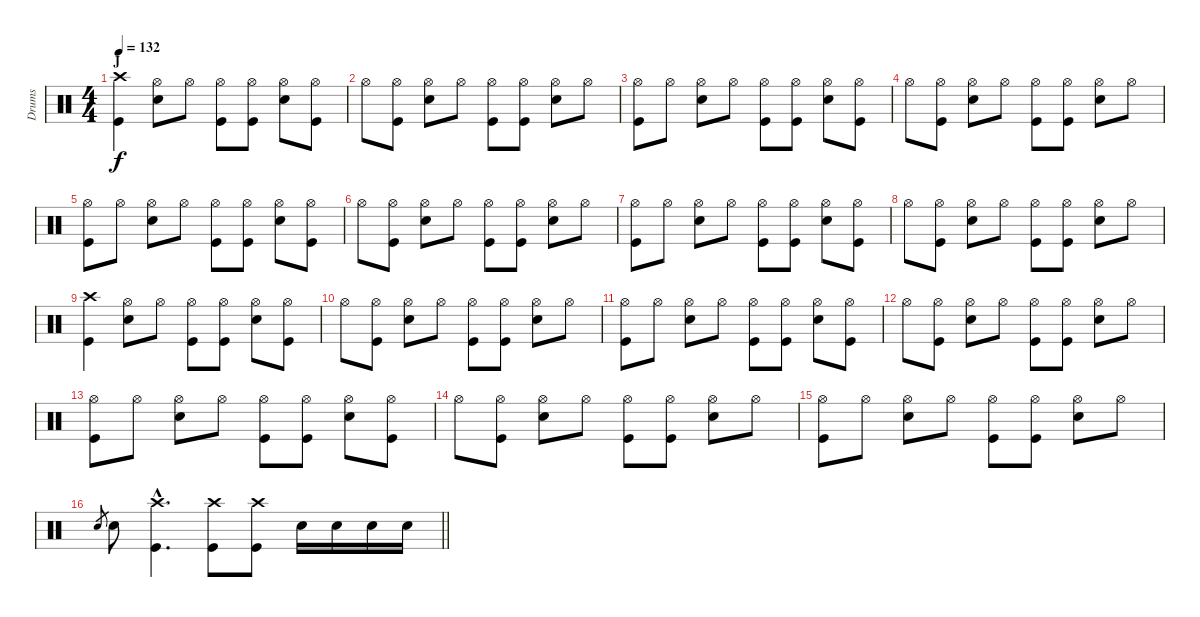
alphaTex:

\track ("Drums" "Drums") {instrument percussion}
\staff {score}
\articulation defaults
\ts (4 4)
\section ("" "J")
\tempo 132
\clef neutral
\ks c
("Crash high (hit)" "Kick (hit)").4{dy f} ("Hi-Hat (open)" "Electric Snare (hit)").8 "Hi-Hat (open)".8 ("Hi-Hat (open)" "Kick (hit)").8 ("Hi-Hat (open)" "Kick (hit)").8 ("Hi-Hat (open)" "Electric Snare (hit)").8 ("Hi-Hat (open)" "Kick (hit)").8 |
"Hi-Hat (open)".8 ("Hi-Hat (open)" "Kick (hit)").8 ("Hi-Hat (open)" "Electric Snare (hit)").8 "Hi-Hat (open)".8 ("Hi-Hat (open)" "Kick (hit)").8 ("Hi-Hat (open)" "Kick (hit)").8 ("Hi-Hat (open)" "Electric Snare (hit)").8 "Hi-Hat (open)".8 |
("Hi-Hat (open)" "Kick (hit)").8 "Hi-Hat (open)".8 ("Hi-Hat (open)" "Electric Snare (hit)").8 "Hi-Hat (open)".8 ("Hi-Hat (open)" "Kick (hit)").8 ("Hi-Hat (open)" "Kick (hit)").8 ("Hi-Hat (open)" "Electric Snare (hit)").8 ("Hi-Hat (open)" "Kick (hit)").8 |
"Hi-Hat (open)".8 ("Hi-Hat (open)" "Kick (hit)").8 ("Hi-Hat (open)" "Electric Snare (hit)").8 "Hi-Hat (open)".8 ("Hi-Hat (open)" "Kick (hit)").8 ("Hi-Hat (open)" "Kick (hit)").8 ("Hi-Hat (open)" "Electric Snare (hit)").8 "Hi-Hat (open)".8 |
("Hi-Hat (open)" "Kick (hit)").8 "Hi-Hat (open)".8 ("Hi-Hat (open)" "Electric Snare (hit)").8 "Hi-Hat (open)".8 ("Hi-Hat (open)" "Kick (hit)").8 ("Hi-Hat (open)" "Kick (hit)").8 ("Hi-Hat (open)" "Electric Snare (hit)").8 ("Hi-Hat (open)" "Kick (hit)").8 |
"Hi-Hat (open)".8 ("Hi-Hat (open)" "Kick (hit)").8 ("Hi-Hat (open)" "Electric Snare (hit)").8 "Hi-Hat (open)".8 ("Hi-Hat (open)" "Kick (hit)").8 ("Hi-Hat (open)" "Kick (hit)").8 ("Hi-Hat (open)" "Electric Snare (hit)").8 "Hi-Hat (open)".8 |
("Hi-Hat (open)" "Kick (hit)").8 "Hi-Hat (open)".8 ("Hi-Hat (open)" "Electric Snare (hit)").8 "Hi-Hat (open)".8 ("Hi-Hat (open)" "Kick (hit)").8 ("Hi-Hat (open)" "Kick (hit)").8 ("Hi-Hat (open)" "Electric Snare (hit)").8 ("Hi-Hat (open)" "Kick (hit)").8 |
"Hi-Hat (open)".8 ("Hi-Hat (open)" "Kick (hit)").8 ("Hi-Hat (open)" "Electric Snare (hit)").8 "Hi-Hat (open)".8 ("Hi-Hat (open)" "Kick (hit)").8 ("Hi-Hat (open)" "Kick (hit)").8 ("Hi-Hat (open)" "Electric Snare (hit)").8 "Hi-Hat (open)".8 |
("Crash high (hit)" "Kick (hit)").4 ("Hi-Hat (open)" "Electric Snare (hit)").8 "Hi-Hat (open)".8 ("Hi-Hat (open)" "Kick (hit)").8 ("Hi-Hat (open)" "Kick (hit)").8 ("Hi-Hat (open)" "Electric Snare (hit)").8 ("Hi-Hat (open)" "Kick (hit)").8 |
"Hi-Hat (open)".8 ("Hi-Hat (open)" "Kick (hit)").8 ("Hi-Hat (open)" "Electric Snare (hit)").8 "Hi-Hat (open)".8 ("Hi-Hat (open)" "Kick (hit)").8 ("Hi-Hat (open)" "Kick (hit)").8 ("Hi-Hat (open)" "Electric Snare (hit)").8 "Hi-Hat (open)".8 |
("Hi-Hat (open)" "Kick (hit)").8 "Hi-Hat (open)".8 ("Hi-Hat (open)" "Electric Snare (hit)").8 "Hi-Hat (open)".8 ("Hi-Hat (open)" "Kick (hit)").8 ("Hi-Hat (open)" "Kick (hit)").8 ("Hi-Hat (open)" "Electric Snare (hit)").8 ("Hi-Hat (open)" "Kick (hit)").8 |
"Hi-Hat (open)".8 ("Hi-Hat (open)" "Kick (hit)").8 ("Hi-Hat (open)" "Electric Snare (hit)").8 "Hi-Hat (open)".8 ("Hi-Hat (open)" "Kick (hit)").8 ("Hi-Hat (open)" "Kick (hit)").8 ("Hi-Hat (open)" "Electric Snare (hit)").8 "Hi-Hat (open)".8 |
("Hi-Hat (open)" "Kick (hit)").8 "Hi-Hat (open)".8 ("Hi-Hat (open)" "Electric Snare (hit)").8 "Hi-Hat (open)".8 ("Hi-Hat (open)" "Kick (hit)").8 ("Hi-Hat (open)" "Kick (hit)").8 ("Hi-Hat (open)" "Electric Snare (hit)").8 ("Hi-Hat (open)" "Kick (hit)").8 |
"Hi-Hat (open)".8 ("Hi-Hat (open)" "Kick (hit)").8 ("Hi-Hat (open)" "Electric Snare (hit)").8 "Hi-Hat (open)".8 ("Hi-Hat (open)" "Kick (hit)").8 ("Hi-Hat (open)" "Kick (hit)").8 ("Hi-Hat (open)" "Electric Snare (hit)").8 "Hi-Hat (open)".8 |
("Hi-Hat (open)" "Kick (hit)").8 "Hi-Hat (open)".8 ("Hi-Hat (open)" "Electric Snare (hit)").8 "Hi-Hat (open)".8 ("Hi-Hat (open)" "Kick (hit)").8 ("Hi-Hat (open)" "Kick (hit)").8 ("Hi-Hat (open)" "Electric Snare (hit)").8 "Hi-Hat (open)".8 |
\barLineRight lightlight "Electric Snare (hit)".8{gr} "Electric Snare (hit)".8
("Crash high (hit)"{hac} "Kick (hit)"{hac}).4{d} ("Crash high (hit)" "Kick (hit)").8 ("Crash high (hit)" "Kick (hit)").8 "Electric Snare (hit)".16 "Electric Snare (hit)".16 "Electric Snare (hit)".16 "Electric Snare (hit)".16
